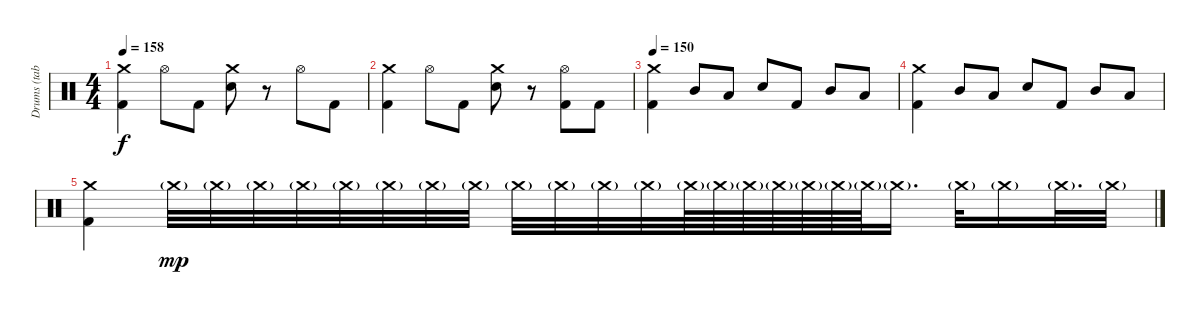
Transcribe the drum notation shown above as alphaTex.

\track ("Drums (tabbed by bassman213293)" "Drums (tab") {instrument percussion}
\staff {score}
\articulation defaults
\ts (4 4)
\tempo 158
\clef neutral
\ks c
("Crash medium (hit)" "Kick (hit) 2").4{dy f} "Hi-Hat (open)".8 "Kick (hit) 2".8 ("Crash medium (hit)" "Electric Snare (hit)").8 r.8 "Hi-Hat (open)".8 "Kick (hit) 2".8 |
("Crash medium (hit)" "Kick (hit) 2").4 "Hi-Hat (open)".8 "Kick (hit) 2".8 ("Crash medium (hit)" "Electric Snare (hit)").8 r.8 ("Hi-Hat (open)" "Kick (hit) 2").8 "Kick (hit) 2".8 |
\tempo 150
("Crash medium (hit)" "Kick (hit) 2").4 "Mid Tom (hit)".8 "Low Tom (hit)".8 "Electric Snare (hit)".8 "Kick (hit) 2".8 "Mid Tom (hit)".8 "Low Tom (hit)".8 |
("Crash medium (hit)" "Kick (hit) 2").4 "Mid Tom (hit)".8 "Low Tom (hit)".8 "Electric Snare (hit)".8 "Kick (hit) 2".8 "Mid Tom (hit)".8 "Low Tom (hit)".8 |
("Crash medium (hit)" "Kick (hit) 2").4 "Crash medium (hit)"{g}.32{dy mp} "Crash medium (hit)"{g}.32 "Crash medium (hit)"{g}.32 "Crash medium (hit)"{g}.32 "Crash medium (hit)"{g}.32 "Crash medium (hit)"{g}.32 "Crash medium (hit)"{g}.32 "Crash medium (hit)"{g}.32 "Crash medium (hit)"{g}.32 "Crash medium (hit)"{g}.32 "Crash medium (hit)"{g}.32 "Crash medium (hit)"{g}.32 "Crash medium (hit)"{g}.64 "Crash medium (hit)"{g}.64 "Crash medium (hit)"{g}.64 "Crash medium (hit)"{g}.64 "Crash medium (hit)"{g}.64 "Crash medium (hit)"{g}.64 "Crash medium (hit)"{g}.64 "Crash medium (hit)"{g}.16{d} "Crash medium (hit)"{g}.32 "Crash medium (hit)"{g}.16 "Crash medium (hit)"{g}.32{d} "Crash medium (hit)"{g}.32
